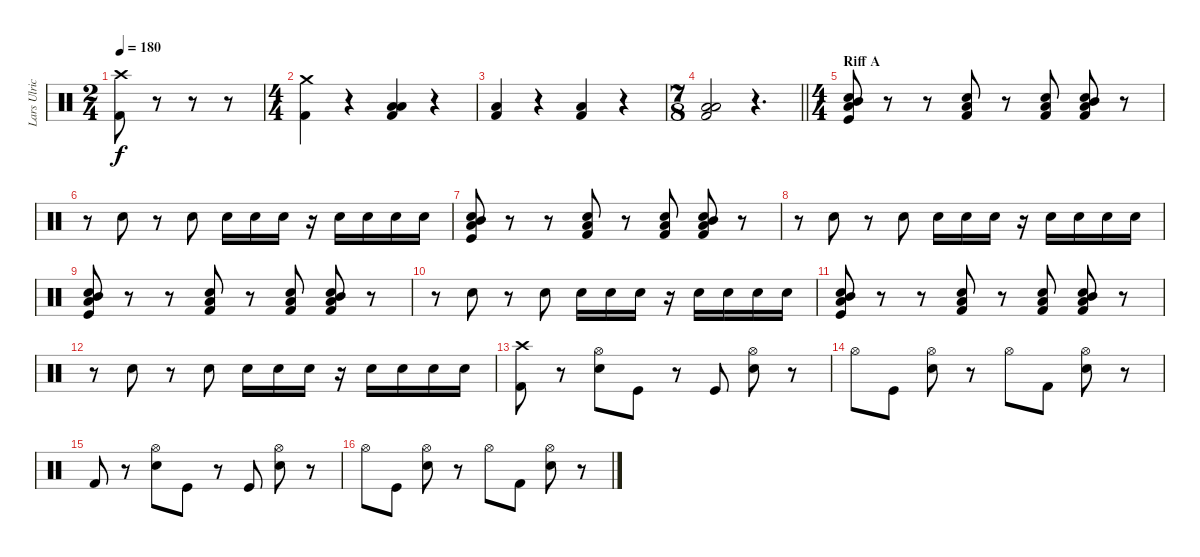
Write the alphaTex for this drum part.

\track ("Lars Ulrich" "Lars Ulric") {instrument percussion}
\staff {score}
\articulation defaults
\ts (2 4)
\tempo 180
\clef neutral
\ks c
("Crash high (hit)" "Kick (hit) 2").8{dy f} r.8 r.8 r.8 |
\ts (4 4)
("Crash medium (hit)" "Kick (hit) 2").4 r.4 ("Low Floor Tom (hit)" "Low Tom (hit)" "Kick (hit) 2").4 r.4 |
("Low Floor Tom (hit)" "Kick (hit) 2").4 r.4 ("Low Floor Tom (hit)" "Kick (hit) 2").4 r.4 |
\ts (7 8)
\barLineRight lightlight
("Low Tom (hit)" "Low Floor Tom (hit)" "Kick (hit) 2").2 r.4{d} |
\ts (4 4)
\section ("" "Riff A")
("Electric Snare (hit)" "Low Tom (hit)" "Mid Tom (hit)" "Kick (hit)").8 r.8 r.8 ("Electric Snare (hit)" "Low Tom (hit)" "Kick (hit) 2").8 r.8 ("Electric Snare (hit)" "Low Tom (hit)" "Kick (hit) 2").8 ("Electric Snare (hit)" "Low Tom (hit)" "Mid Tom (hit)" "Kick (hit) 2").8 r.8 |
r.8 "Electric Snare (hit)".8 r.8 "Electric Snare (hit)".8 "Electric Snare (hit)".16 "Electric Snare (hit)".16 "Electric Snare (hit)".16 r.16 "Electric Snare (hit)".16 "Electric Snare (hit)".16 "Electric Snare (hit)".16 "Electric Snare (hit)".16 |
("Electric Snare (hit)" "Low Tom (hit)" "Mid Tom (hit)" "Kick (hit)").8 r.8 r.8 ("Electric Snare (hit)" "Low Tom (hit)" "Kick (hit) 2").8 r.8 ("Electric Snare (hit)" "Low Tom (hit)" "Kick (hit) 2").8 ("Electric Snare (hit)" "Low Tom (hit)" "Mid Tom (hit)" "Kick (hit) 2").8 r.8 |
r.8 "Electric Snare (hit)".8 r.8 "Electric Snare (hit)".8 "Electric Snare (hit)".16 "Electric Snare (hit)".16 "Electric Snare (hit)".16 r.16 "Electric Snare (hit)".16 "Electric Snare (hit)".16 "Electric Snare (hit)".16 "Electric Snare (hit)".16 |
("Electric Snare (hit)" "Low Tom (hit)" "Mid Tom (hit)" "Kick (hit)").8 r.8 r.8 ("Electric Snare (hit)" "Low Tom (hit)" "Kick (hit) 2").8 r.8 ("Electric Snare (hit)" "Low Tom (hit)" "Kick (hit) 2").8 ("Electric Snare (hit)" "Low Tom (hit)" "Mid Tom (hit)" "Kick (hit) 2").8 r.8 |
r.8 "Electric Snare (hit)".8 r.8 "Electric Snare (hit)".8 "Electric Snare (hit)".16 "Electric Snare (hit)".16 "Electric Snare (hit)".16 r.16 "Electric Snare (hit)".16 "Electric Snare (hit)".16 "Electric Snare (hit)".16 "Electric Snare (hit)".16 |
("Electric Snare (hit)" "Low Tom (hit)" "Mid Tom (hit)" "Kick (hit)").8 r.8 r.8 ("Electric Snare (hit)" "Low Tom (hit)" "Kick (hit) 2").8 r.8 ("Electric Snare (hit)" "Low Tom (hit)" "Kick (hit) 2").8 ("Electric Snare (hit)" "Low Tom (hit)" "Mid Tom (hit)" "Kick (hit) 2").8 r.8 |
r.8 "Electric Snare (hit)".8 r.8 "Electric Snare (hit)".8 "Electric Snare (hit)".16 "Electric Snare (hit)".16 "Electric Snare (hit)".16 r.16 "Electric Snare (hit)".16 "Electric Snare (hit)".16 "Electric Snare (hit)".16 "Electric Snare (hit)".16 |
("Crash high (hit)" "Kick (hit) 2").8 r.8 ("Hi-Hat (open)" "Electric Snare (hit)").8 "Kick (hit)".8 r.8 "Kick (hit)".8 ("Hi-Hat (open)" "Electric Snare (hit)").8 r.8 |
"Hi-Hat (open)".8 "Kick (hit)".8 ("Hi-Hat (open)" "Electric Snare (hit)").8 r.8 "Hi-Hat (open)".8 "Kick (hit) 2".8 ("Hi-Hat (open)" "Electric Snare (hit)").8 r.8 |
"Kick (hit) 2".8 r.8 ("Hi-Hat (open)" "Electric Snare (hit)").8 "Kick (hit)".8 r.8 "Kick (hit)".8 ("Hi-Hat (open)" "Electric Snare (hit)").8 r.8 |
"Hi-Hat (open)".8 "Kick (hit)".8 ("Hi-Hat (open)" "Electric Snare (hit)").8 r.8 "Hi-Hat (open)".8 "Kick (hit) 2".8 ("Hi-Hat (open)" "Electric Snare (hit)").8 r.8
